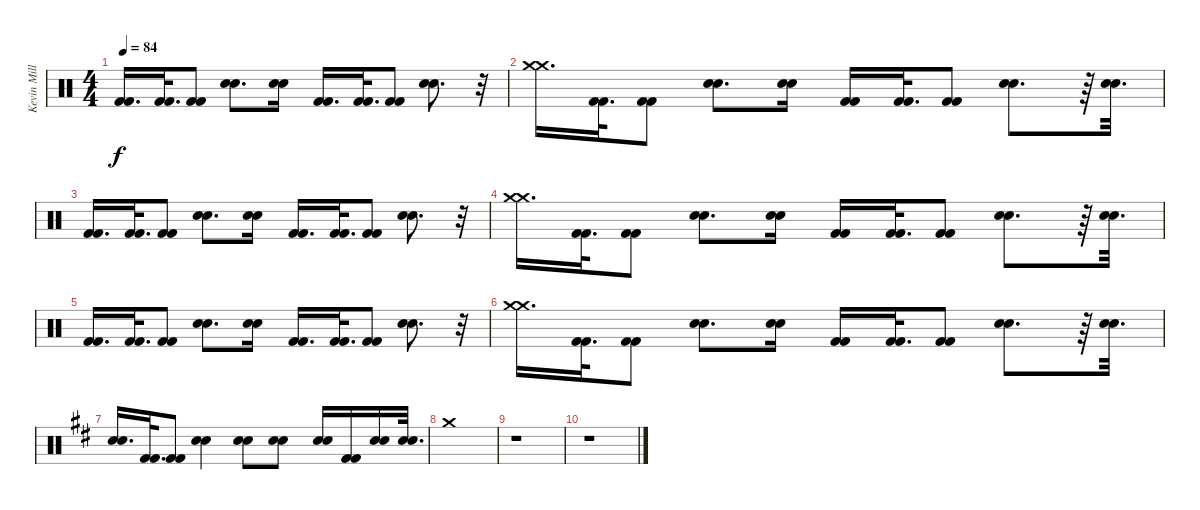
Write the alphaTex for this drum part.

\track ("Kevin Miller (Drums)" "Kevin Mill") {instrument percussion}
\staff {score}
\articulation defaults
\ts (4 4)
\tempo 84
\clef neutral
\ks c
("Kick (hit) 2" "Kick (hit) 2").16{d dy f} ("Kick (hit) 2" "Kick (hit) 2").32{d} ("Kick (hit) 2" "Kick (hit) 2").8 ("Electric Snare (hit)" "Electric Snare (hit)").8{d} ("Electric Snare (hit)" "Electric Snare (hit)").16 ("Kick (hit) 2" "Kick (hit) 2").16{d} ("Kick (hit) 2" "Kick (hit) 2").32{d} ("Kick (hit) 2" "Kick (hit) 2").8 ("Electric Snare (hit)" "Electric Snare (hit)").8{d} r.32 |
("Crash medium (hit)" "Crash medium (hit)").16{d} ("Kick (hit) 2" "Kick (hit) 2").32{d} ("Kick (hit) 2" "Kick (hit) 2").8 ("Electric Snare (hit)" "Electric Snare (hit)").8{d} ("Electric Snare (hit)" "Electric Snare (hit)").16 ("Kick (hit) 2" "Kick (hit) 2").16 ("Kick (hit) 2" "Kick (hit) 2").32{d} ("Kick (hit) 2" "Kick (hit) 2").8 ("Electric Snare (hit)" "Electric Snare (hit)").8{d} r.64 ("Electric Snare (hit)" "Electric Snare (hit)").32{d} |
("Kick (hit) 2" "Kick (hit) 2").16{d} ("Kick (hit) 2" "Kick (hit) 2").32{d} ("Kick (hit) 2" "Kick (hit) 2").8 ("Electric Snare (hit)" "Electric Snare (hit)").8{d} ("Electric Snare (hit)" "Electric Snare (hit)").16 ("Kick (hit) 2" "Kick (hit) 2").16{d} ("Kick (hit) 2" "Kick (hit) 2").32{d} ("Kick (hit) 2" "Kick (hit) 2").8 ("Electric Snare (hit)" "Electric Snare (hit)").8{d} r.32 |
("Crash medium (hit)" "Crash medium (hit)").16{d} ("Kick (hit) 2" "Kick (hit) 2").32{d} ("Kick (hit) 2" "Kick (hit) 2").8 ("Electric Snare (hit)" "Electric Snare (hit)").8{d} ("Electric Snare (hit)" "Electric Snare (hit)").16 ("Kick (hit) 2" "Kick (hit) 2").16 ("Kick (hit) 2" "Kick (hit) 2").32{d} ("Kick (hit) 2" "Kick (hit) 2").8 ("Electric Snare (hit)" "Electric Snare (hit)").8{d} r.64 ("Electric Snare (hit)" "Electric Snare (hit)").32{d} |
("Kick (hit) 2" "Kick (hit) 2").16{d} ("Kick (hit) 2" "Kick (hit) 2").32{d} ("Kick (hit) 2" "Kick (hit) 2").8 ("Electric Snare (hit)" "Electric Snare (hit)").8{d} ("Electric Snare (hit)" "Electric Snare (hit)").16 ("Kick (hit) 2" "Kick (hit) 2").16{d} ("Kick (hit) 2" "Kick (hit) 2").32{d} ("Kick (hit) 2" "Kick (hit) 2").8 ("Electric Snare (hit)" "Electric Snare (hit)").8{d} r.32 |
("Crash medium (hit)" "Crash medium (hit)").16{d} ("Kick (hit) 2" "Kick (hit) 2").32{d} ("Kick (hit) 2" "Kick (hit) 2").8 ("Electric Snare (hit)" "Electric Snare (hit)").8{d} ("Electric Snare (hit)" "Electric Snare (hit)").16 ("Kick (hit) 2" "Kick (hit) 2").16 ("Kick (hit) 2" "Kick (hit) 2").32{d} ("Kick (hit) 2" "Kick (hit) 2").8 ("Electric Snare (hit)" "Electric Snare (hit)").8{d} r.64 ("Electric Snare (hit)" "Electric Snare (hit)").32{d} |
\ks d
("Electric Snare (hit)" "Electric Snare (hit)").16{d} ("Kick (hit) 2" "Kick (hit) 2").32{d} ("Kick (hit) 2" "Kick (hit) 2").8 ("Electric Snare (hit)" "Electric Snare (hit)").4 ("Electric Snare (hit)" "Electric Snare (hit)").8 ("Electric Snare (hit)" "Electric Snare (hit)").8 ("Electric Snare (hit)" "Electric Snare (hit)").16 ("Kick (hit) 2" "Kick (hit) 2").16 ("Electric Snare (hit)" "Electric Snare (hit)").16 ("Electric Snare (hit)" "Electric Snare (hit)").32{d} |
"Crash medium (hit)".1 |
r.1 |
r.1
